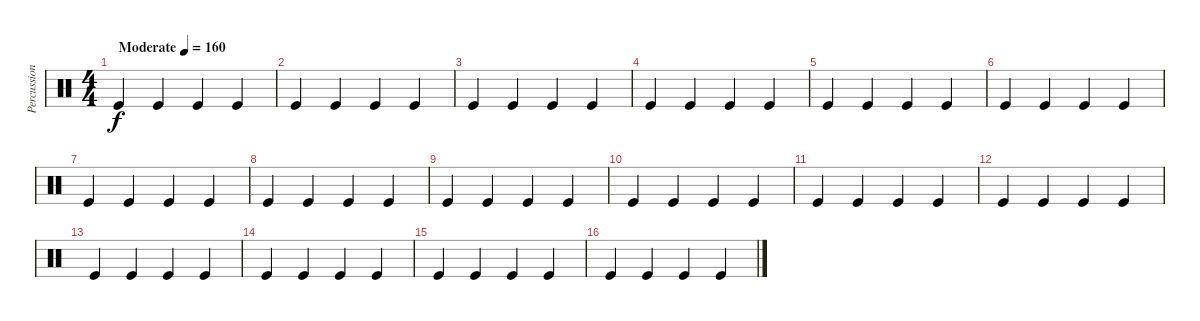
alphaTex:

\track ("Percussions" "Percussion") {instrument percussion}
\staff {score}
\articulation defaults
\ts (4 4)
\tempo (160 "Moderate")
\clef neutral
\ks c "Kick (hit)".4{dy f} "Kick (hit)".4 "Kick (hit)".4 "Kick (hit)".4
|
"Kick (hit)".4 "Kick (hit)".4 "Kick (hit)".4 "Kick (hit)".4 |
"Kick (hit)".4 "Kick (hit)".4 "Kick (hit)".4 "Kick (hit)".4 |
"Kick (hit)".4 "Kick (hit)".4 "Kick (hit)".4 "Kick (hit)".4 |
"Kick (hit)".4 "Kick (hit)".4 "Kick (hit)".4 "Kick (hit)".4 |
"Kick (hit)".4 "Kick (hit)".4 "Kick (hit)".4 "Kick (hit)".4 |
"Kick (hit)".4 "Kick (hit)".4 "Kick (hit)".4 "Kick (hit)".4 |
"Kick (hit)".4 "Kick (hit)".4 "Kick (hit)".4 "Kick (hit)".4 |
"Kick (hit)".4 "Kick (hit)".4 "Kick (hit)".4 "Kick (hit)".4 |
"Kick (hit)".4 "Kick (hit)".4 "Kick (hit)".4 "Kick (hit)".4 |
"Kick (hit)".4 "Kick (hit)".4 "Kick (hit)".4 "Kick (hit)".4 |
"Kick (hit)".4 "Kick (hit)".4 "Kick (hit)".4 "Kick (hit)".4 |
"Kick (hit)".4 "Kick (hit)".4 "Kick (hit)".4 "Kick (hit)".4 |
"Kick (hit)".4 "Kick (hit)".4 "Kick (hit)".4 "Kick (hit)".4 |
"Kick (hit)".4 "Kick (hit)".4 "Kick (hit)".4 "Kick (hit)".4 |
"Kick (hit)".4 "Kick (hit)".4 "Kick (hit)".4 "Kick (hit)".4
